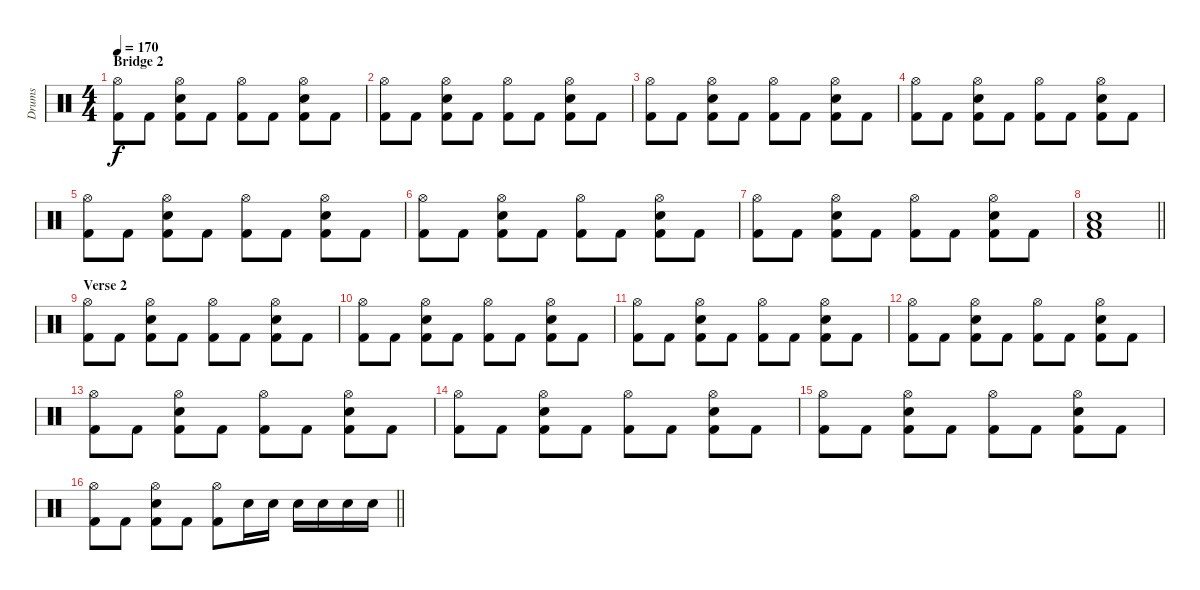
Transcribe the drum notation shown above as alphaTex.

\track ("Drums" "Drums") {instrument percussion}
\staff {score}
\articulation defaults
\ts (4 4)
\section ("" "Bridge 2")
\tempo 170
\clef neutral
\ks c
("Hi-Hat (open)" "Kick (hit) 2").8{dy f} "Kick (hit) 2".8 ("Hi-Hat (open)" "Snare (hit) 2" "Kick (hit) 2").8 "Kick (hit) 2".8 ("Hi-Hat (open)" "Kick (hit) 2").8 "Kick (hit) 2".8 ("Hi-Hat (open)" "Snare (hit) 2" "Kick (hit) 2").8 "Kick (hit) 2".8 |
("Hi-Hat (open)" "Kick (hit) 2").8 "Kick (hit) 2".8 ("Hi-Hat (open)" "Snare (hit) 2" "Kick (hit) 2").8 "Kick (hit) 2".8 ("Hi-Hat (open)" "Kick (hit) 2").8 "Kick (hit) 2".8 ("Hi-Hat (open)" "Snare (hit) 2" "Kick (hit) 2").8 "Kick (hit) 2".8 |
("Hi-Hat (open)" "Kick (hit) 2").8 "Kick (hit) 2".8 ("Hi-Hat (open)" "Snare (hit) 2" "Kick (hit) 2").8 "Kick (hit) 2".8 ("Hi-Hat (open)" "Kick (hit) 2").8 "Kick (hit) 2".8 ("Hi-Hat (open)" "Snare (hit) 2" "Kick (hit) 2").8 "Kick (hit) 2".8 |
("Hi-Hat (open)" "Kick (hit) 2").8 "Kick (hit) 2".8 ("Hi-Hat (open)" "Snare (hit) 2" "Kick (hit) 2").8 "Kick (hit) 2".8 ("Hi-Hat (open)" "Kick (hit) 2").8 "Kick (hit) 2".8 ("Hi-Hat (open)" "Snare (hit) 2" "Kick (hit) 2").8 "Kick (hit) 2".8 |
("Hi-Hat (open)" "Kick (hit) 2").8 "Kick (hit) 2".8 ("Hi-Hat (open)" "Snare (hit) 2" "Kick (hit) 2").8 "Kick (hit) 2".8 ("Hi-Hat (open)" "Kick (hit) 2").8 "Kick (hit) 2".8 ("Hi-Hat (open)" "Snare (hit) 2" "Kick (hit) 2").8 "Kick (hit) 2".8 |
("Hi-Hat (open)" "Kick (hit) 2").8 "Kick (hit) 2".8 ("Hi-Hat (open)" "Snare (hit) 2" "Kick (hit) 2").8 "Kick (hit) 2".8 ("Hi-Hat (open)" "Kick (hit) 2").8 "Kick (hit) 2".8 ("Hi-Hat (open)" "Snare (hit) 2" "Kick (hit) 2").8 "Kick (hit) 2".8 |
("Hi-Hat (open)" "Kick (hit) 2").8 "Kick (hit) 2".8 ("Hi-Hat (open)" "Snare (hit) 2" "Kick (hit) 2").8 "Kick (hit) 2".8 ("Hi-Hat (open)" "Kick (hit) 2").8 "Kick (hit) 2".8 ("Hi-Hat (open)" "Snare (hit) 2" "Kick (hit) 2").8 "Kick (hit) 2".8 |
\barLineRight lightlight
("Low Floor Tom (hit)" "Snare (hit) 2" "Kick (hit) 2").1 |
\section ("" "Verse 2")
("Hi-Hat (open)" "Kick (hit) 2").8 "Kick (hit) 2".8 ("Hi-Hat (open)" "Snare (hit) 2" "Kick (hit) 2").8 "Kick (hit) 2".8 ("Hi-Hat (open)" "Kick (hit) 2").8 "Kick (hit) 2".8 ("Hi-Hat (open)" "Snare (hit) 2" "Kick (hit) 2").8 "Kick (hit) 2".8 |
("Hi-Hat (open)" "Kick (hit) 2").8 "Kick (hit) 2".8 ("Hi-Hat (open)" "Snare (hit) 2" "Kick (hit) 2").8 "Kick (hit) 2".8 ("Hi-Hat (open)" "Kick (hit) 2").8 "Kick (hit) 2".8 ("Hi-Hat (open)" "Snare (hit) 2" "Kick (hit) 2").8 "Kick (hit) 2".8 |
("Hi-Hat (open)" "Kick (hit) 2").8 "Kick (hit) 2".8 ("Hi-Hat (open)" "Snare (hit) 2" "Kick (hit) 2").8 "Kick (hit) 2".8 ("Hi-Hat (open)" "Kick (hit) 2").8 "Kick (hit) 2".8 ("Hi-Hat (open)" "Snare (hit) 2" "Kick (hit) 2").8 "Kick (hit) 2".8 |
("Hi-Hat (open)" "Kick (hit) 2").8 "Kick (hit) 2".8 ("Hi-Hat (open)" "Snare (hit) 2" "Kick (hit) 2").8 "Kick (hit) 2".8 ("Hi-Hat (open)" "Kick (hit) 2").8 "Kick (hit) 2".8 ("Hi-Hat (open)" "Snare (hit) 2" "Kick (hit) 2").8 "Kick (hit) 2".8 |
("Hi-Hat (open)" "Kick (hit) 2").8 "Kick (hit) 2".8 ("Hi-Hat (open)" "Snare (hit) 2" "Kick (hit) 2").8 "Kick (hit) 2".8 ("Hi-Hat (open)" "Kick (hit) 2").8 "Kick (hit) 2".8 ("Hi-Hat (open)" "Snare (hit) 2" "Kick (hit) 2").8 "Kick (hit) 2".8 |
("Hi-Hat (open)" "Kick (hit) 2").8 "Kick (hit) 2".8 ("Hi-Hat (open)" "Snare (hit) 2" "Kick (hit) 2").8 "Kick (hit) 2".8 ("Hi-Hat (open)" "Kick (hit) 2").8 "Kick (hit) 2".8 ("Hi-Hat (open)" "Snare (hit) 2" "Kick (hit) 2").8 "Kick (hit) 2".8 |
("Hi-Hat (open)" "Kick (hit) 2").8 "Kick (hit) 2".8 ("Hi-Hat (open)" "Snare (hit) 2" "Kick (hit) 2").8 "Kick (hit) 2".8 ("Hi-Hat (open)" "Kick (hit) 2").8 "Kick (hit) 2".8 ("Hi-Hat (open)" "Snare (hit) 2" "Kick (hit) 2").8 "Kick (hit) 2".8 |
\barLineRight lightlight
("Hi-Hat (open)" "Kick (hit) 2").8 "Kick (hit) 2".8 ("Hi-Hat (open)" "Snare (hit) 2" "Kick (hit) 2").8 "Kick (hit) 2".8 ("Hi-Hat (open)" "Kick (hit) 2").8 "Snare (hit) 2".16 "Snare (hit) 2".16 "Snare (hit) 2".16 "Snare (hit) 2".16 "Snare (hit) 2".16 "Snare (hit) 2".16
